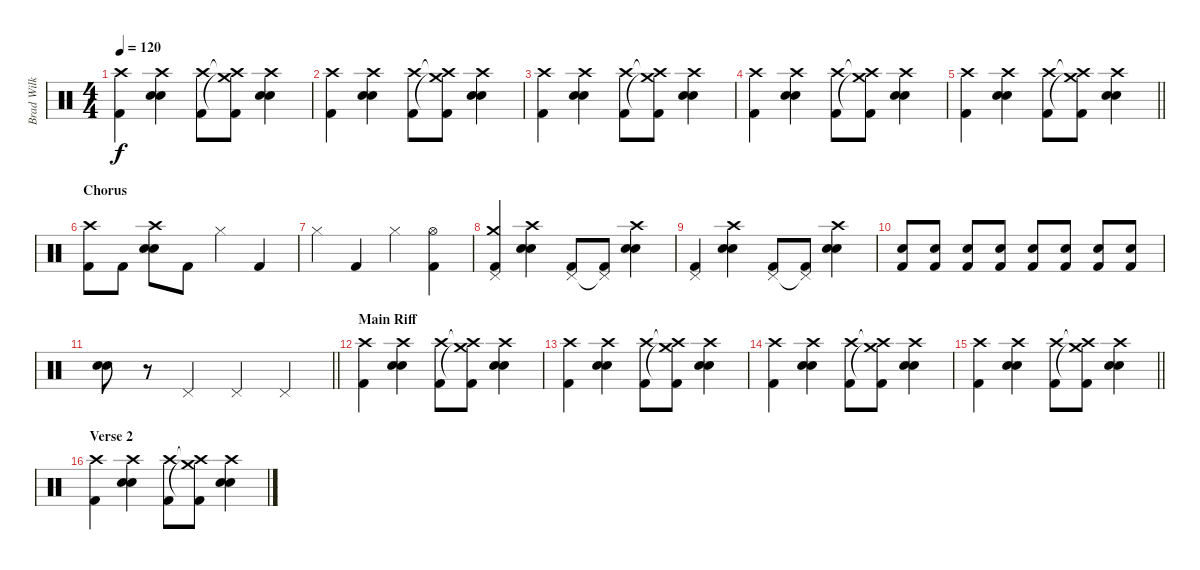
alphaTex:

\track ("Brad Wilk" "Brad Wilk") {instrument percussion}
\staff {score}
\articulation defaults
\ts (4 4)
\tempo 120
\clef neutral
\ks c
("Crash high (hit)" "Kick (hit) 2").4{dy f} ("Electric Snare (hit)" "Snare (hit) 2" "Crash high (hit)").4 ("Crash high (hit)" "Kick (hit) 2").8 ("Crash high (hit)"{t} "Crash medium (hit)"{t} "Kick (hit) 2").8 ("Electric Snare (hit)" "Snare (hit) 2" "Crash high (hit)").4 |
("Crash high (hit)" "Kick (hit) 2").4 ("Electric Snare (hit)" "Snare (hit) 2" "Crash high (hit)").4 ("Crash high (hit)" "Kick (hit) 2").8 ("Crash high (hit)"{t} "Crash medium (hit)"{t} "Kick (hit) 2").8 ("Electric Snare (hit)" "Snare (hit) 2" "Crash high (hit)").4 |
("Crash high (hit)" "Kick (hit) 2").4 ("Electric Snare (hit)" "Snare (hit) 2" "Crash high (hit)").4 ("Crash high (hit)" "Kick (hit) 2").8 ("Crash high (hit)"{t} "Crash medium (hit)"{t} "Kick (hit) 2").8 ("Electric Snare (hit)" "Snare (hit) 2" "Crash high (hit)").4 |
("Crash high (hit)" "Kick (hit) 2").4 ("Electric Snare (hit)" "Snare (hit) 2" "Crash high (hit)").4 ("Crash high (hit)" "Kick (hit) 2").8 ("Crash high (hit)"{t} "Crash medium (hit)"{t} "Kick (hit) 2").8 ("Electric Snare (hit)" "Snare (hit) 2" "Crash high (hit)").4 |
\barLineRight lightlight
("Crash high (hit)" "Kick (hit) 2").4 ("Electric Snare (hit)" "Snare (hit) 2" "Crash high (hit)").4 ("Crash high (hit)" "Kick (hit) 2").8 ("Crash high (hit)"{t} "Crash medium (hit)"{t} "Kick (hit) 2").8 ("Electric Snare (hit)" "Snare (hit) 2" "Crash high (hit)").4 |
\section ("" "Chorus")
("Crash high (hit)" "Kick (hit) 2").8 "Kick (hit) 2".8 ("Electric Snare (hit)" "Snare (hit) 2" "Crash high (hit)").8 "Kick (hit) 2".8 "Hi-Hat (closed)".4 "Kick (hit) 2".4 |
"Hi-Hat (closed)".4 "Kick (hit) 2".4 "Hi-Hat (closed)".4 ("Hi-Hat (open)" "Kick (hit) 2").4 |
("Crash medium (hit)" "Pedal Hi-Hat (hit)" "Kick (hit) 2").4 ("Electric Snare (hit)" "Snare (hit) 2" "Crash high (hit)").4 ("Pedal Hi-Hat (hit)" "Kick (hit) 2").8 ("Pedal Hi-Hat (hit)"{t} "Kick (hit) 2").8 ("Electric Snare (hit)" "Snare (hit) 2" "Crash high (hit)").4 |
("Pedal Hi-Hat (hit)" "Kick (hit) 2").4 ("Electric Snare (hit)" "Snare (hit) 2" "Crash high (hit)").4 ("Pedal Hi-Hat (hit)" "Kick (hit) 2").8 ("Pedal Hi-Hat (hit)"{t} "Kick (hit) 2").8 ("Electric Snare (hit)" "Snare (hit) 2" "Crash high (hit)").4 |
("Electric Snare (hit)" "Kick (hit) 2").8 ("Electric Snare (hit)" "Kick (hit) 2").8 ("Electric Snare (hit)" "Kick (hit) 2").8 ("Electric Snare (hit)" "Kick (hit) 2").8 ("Electric Snare (hit)" "Kick (hit) 2").8 ("Electric Snare (hit)" "Kick (hit) 2").8 ("Electric Snare (hit)" "Kick (hit) 2").8 ("Electric Snare (hit)" "Kick (hit) 2").8 |
\barLineRight lightlight
("Electric Snare (hit)" "Electric Snare (hit)").8{bd 60} r.8 "Pedal Hi-Hat (hit)".4 "Pedal Hi-Hat (hit)".4 "Pedal Hi-Hat (hit)".4 |
\section ("" "Main Riff")
("Crash high (hit)" "Kick (hit) 2").4 ("Electric Snare (hit)" "Snare (hit) 2" "Crash high (hit)").4 ("Crash high (hit)" "Kick (hit) 2").8 ("Crash high (hit)"{t} "Crash medium (hit)"{t} "Kick (hit) 2").8 ("Electric Snare (hit)" "Snare (hit) 2" "Crash high (hit)").4 |
("Crash high (hit)" "Kick (hit) 2").4 ("Electric Snare (hit)" "Snare (hit) 2" "Crash high (hit)").4 ("Crash high (hit)" "Kick (hit) 2").8 ("Crash high (hit)"{t} "Crash medium (hit)"{t} "Kick (hit) 2").8 ("Electric Snare (hit)" "Snare (hit) 2" "Crash high (hit)").4 |
("Crash high (hit)" "Kick (hit) 2").4 ("Electric Snare (hit)" "Snare (hit) 2" "Crash high (hit)").4 ("Crash high (hit)" "Kick (hit) 2").8 ("Crash high (hit)"{t} "Crash medium (hit)"{t} "Kick (hit) 2").8 ("Electric Snare (hit)" "Snare (hit) 2" "Crash high (hit)").4 |
\barLineRight lightlight
("Crash high (hit)" "Kick (hit) 2").4 ("Electric Snare (hit)" "Snare (hit) 2" "Crash high (hit)").4 ("Crash high (hit)" "Kick (hit) 2").8 ("Crash high (hit)"{t} "Crash medium (hit)"{t} "Kick (hit) 2").8 ("Electric Snare (hit)" "Snare (hit) 2" "Crash high (hit)").4 |
\section ("" "Verse 2")
("Crash high (hit)" "Kick (hit) 2").4 ("Electric Snare (hit)" "Snare (hit) 2" "Crash high (hit)").4 ("Crash high (hit)" "Kick (hit) 2").8 ("Crash high (hit)"{t} "Crash medium (hit)"{t} "Kick (hit) 2").8 ("Electric Snare (hit)" "Snare (hit) 2" "Crash high (hit)").4
